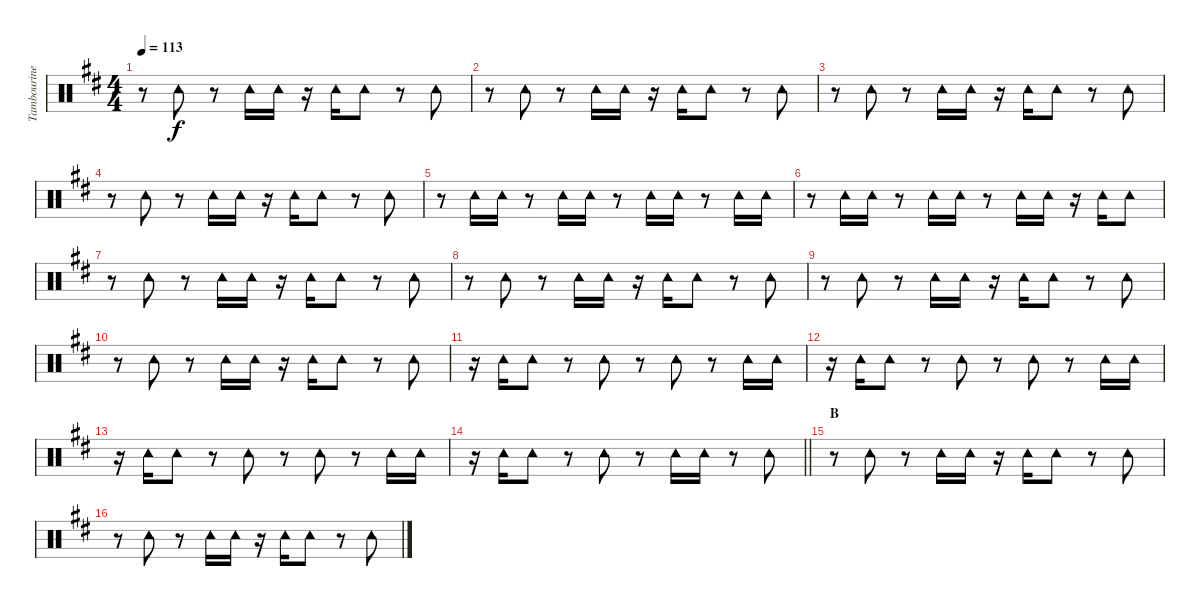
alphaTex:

\track ("Tambourine" "Tambourine") {instrument percussion}
\staff {score}
\articulation defaults
\ts (4 4)
\tempo 113
\clef neutral
\ks d
r.8{dy f} "Tambourine (hit)".8 r.8 "Tambourine (hit)".16 "Tambourine (hit)".16 r.16 "Tambourine (hit)".16 "Tambourine (hit)".8 r.8 "Tambourine (hit)".8 |
r.8 "Tambourine (hit)".8 r.8 "Tambourine (hit)".16 "Tambourine (hit)".16 r.16 "Tambourine (hit)".16 "Tambourine (hit)".8 r.8 "Tambourine (hit)".8 |
r.8 "Tambourine (hit)".8 r.8 "Tambourine (hit)".16 "Tambourine (hit)".16 r.16 "Tambourine (hit)".16 "Tambourine (hit)".8 r.8 "Tambourine (hit)".8 |
r.8 "Tambourine (hit)".8 r.8 "Tambourine (hit)".16 "Tambourine (hit)".16 r.16 "Tambourine (hit)".16 "Tambourine (hit)".8 r.8 "Tambourine (hit)".8 |
r.8 "Tambourine (hit)".16 "Tambourine (hit)".16 r.8 "Tambourine (hit)".16 "Tambourine (hit)".16 r.8 "Tambourine (hit)".16 "Tambourine (hit)".16 r.8 "Tambourine (hit)".16 "Tambourine (hit)".16 |
r.8 "Tambourine (hit)".16 "Tambourine (hit)".16 r.8 "Tambourine (hit)".16 "Tambourine (hit)".16 r.8 "Tambourine (hit)".16 "Tambourine (hit)".16 r.16 "Tambourine (hit)".16 "Tambourine (hit)".8 |
r.8 "Tambourine (hit)".8 r.8 "Tambourine (hit)".16 "Tambourine (hit)".16 r.16 "Tambourine (hit)".16 "Tambourine (hit)".8 r.8 "Tambourine (hit)".8 |
r.8 "Tambourine (hit)".8 r.8 "Tambourine (hit)".16 "Tambourine (hit)".16 r.16 "Tambourine (hit)".16 "Tambourine (hit)".8 r.8 "Tambourine (hit)".8 |
r.8 "Tambourine (hit)".8 r.8 "Tambourine (hit)".16 "Tambourine (hit)".16 r.16 "Tambourine (hit)".16 "Tambourine (hit)".8 r.8 "Tambourine (hit)".8 |
r.8 "Tambourine (hit)".8 r.8 "Tambourine (hit)".16 "Tambourine (hit)".16 r.16 "Tambourine (hit)".16 "Tambourine (hit)".8 r.8 "Tambourine (hit)".8 |
r.16 "Tambourine (hit)".16 "Tambourine (hit)".8 r.8 "Tambourine (hit)".8 r.8 "Tambourine (hit)".8 r.8 "Tambourine (hit)".16 "Tambourine (hit)".16 |
r.16 "Tambourine (hit)".16 "Tambourine (hit)".8 r.8 "Tambourine (hit)".8 r.8 "Tambourine (hit)".8 r.8 "Tambourine (hit)".16 "Tambourine (hit)".16 |
r.16 "Tambourine (hit)".16 "Tambourine (hit)".8 r.8 "Tambourine (hit)".8 r.8 "Tambourine (hit)".8 r.8 "Tambourine (hit)".16 "Tambourine (hit)".16 |
\barLineRight lightlight
r.16 "Tambourine (hit)".16 "Tambourine (hit)".8 r.8 "Tambourine (hit)".8 r.8 "Tambourine (hit)".16 "Tambourine (hit)".16 r.8 "Tambourine (hit)".8 |
\section ("" "B")
r.8 "Tambourine (hit)".8 r.8 "Tambourine (hit)".16 "Tambourine (hit)".16 r.16 "Tambourine (hit)".16 "Tambourine (hit)".8 r.8 "Tambourine (hit)".8 |
r.8 "Tambourine (hit)".8 r.8 "Tambourine (hit)".16 "Tambourine (hit)".16 r.16 "Tambourine (hit)".16 "Tambourine (hit)".8 r.8 "Tambourine (hit)".8
